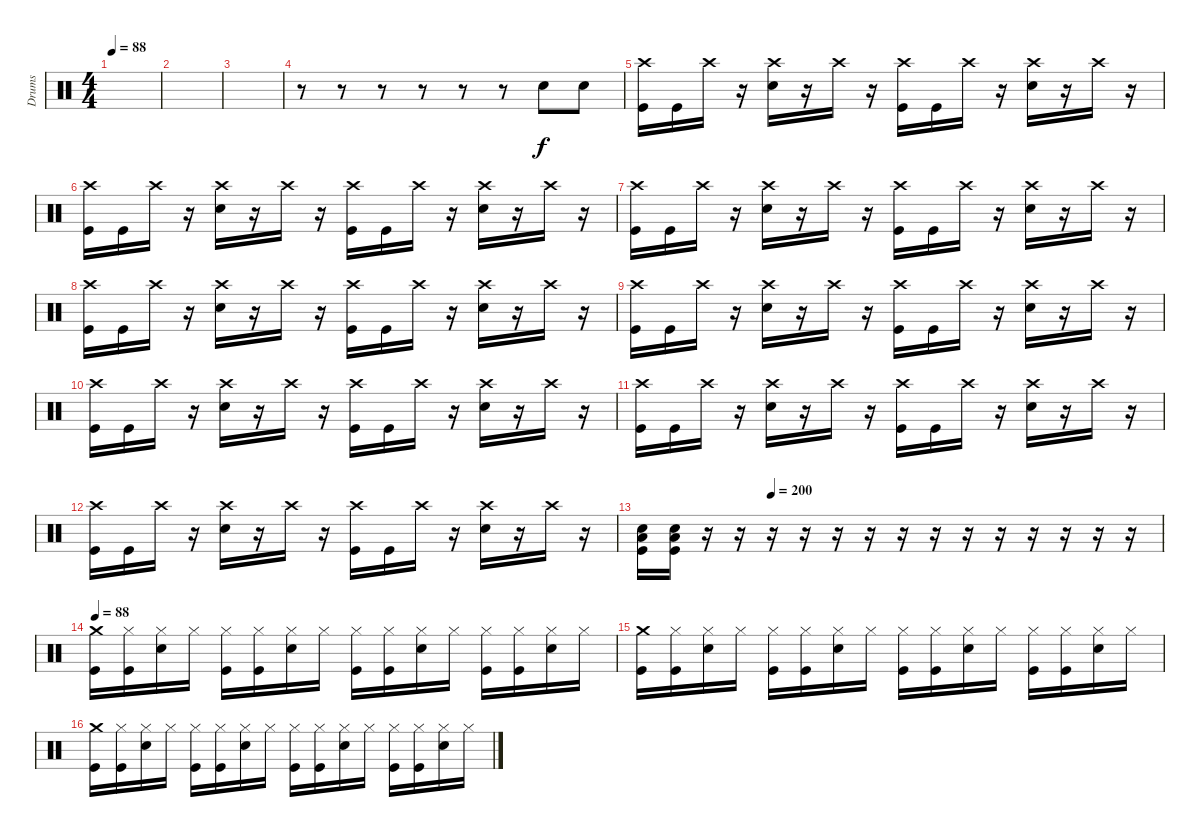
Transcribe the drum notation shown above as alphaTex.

\track ("Drums" "Drums") {instrument percussion}
\staff {score}
\articulation defaults
\ts (4 4)
\tempo 88
\clef neutral
\ks c
|
|
|
r.8 r.8 r.8 r.8 r.8 r.8 "Electric Snare (hit)".8 "Electric Snare (hit)".8 |
("Crash high (hit)" "Kick (hit)").16 "Kick (hit)".16 "Crash high (hit)".16 r.16 ("Crash high (hit)" "Electric Snare (hit)").16 r.16 "Crash high (hit)".16 r.16 ("Crash high (hit)" "Kick (hit)").16 "Kick (hit)".16 "Crash high (hit)".16 r.16 ("Crash high (hit)" "Electric Snare (hit)").16 r.16 "Crash high (hit)".16 r.16 |
("Crash high (hit)" "Kick (hit)").16 "Kick (hit)".16 "Crash high (hit)".16 r.16 ("Crash high (hit)" "Electric Snare (hit)").16 r.16 "Crash high (hit)".16 r.16 ("Crash high (hit)" "Kick (hit)").16 "Kick (hit)".16 "Crash high (hit)".16 r.16 ("Crash high (hit)" "Electric Snare (hit)").16 r.16 "Crash high (hit)".16 r.16 |
("Crash high (hit)" "Kick (hit)").16 "Kick (hit)".16 "Crash high (hit)".16 r.16 ("Crash high (hit)" "Electric Snare (hit)").16 r.16 "Crash high (hit)".16 r.16 ("Crash high (hit)" "Kick (hit)").16 "Kick (hit)".16 "Crash high (hit)".16 r.16 ("Crash high (hit)" "Electric Snare (hit)").16 r.16 "Crash high (hit)".16 r.16 |
("Crash high (hit)" "Kick (hit)").16 "Kick (hit)".16 "Crash high (hit)".16 r.16 ("Crash high (hit)" "Electric Snare (hit)").16 r.16 "Crash high (hit)".16 r.16 ("Crash high (hit)" "Kick (hit)").16 "Kick (hit)".16 "Crash high (hit)".16 r.16 ("Crash high (hit)" "Electric Snare (hit)").16 r.16 "Crash high (hit)".16 r.16 |
("Crash high (hit)" "Kick (hit)").16 "Kick (hit)".16 "Crash high (hit)".16 r.16 ("Crash high (hit)" "Electric Snare (hit)").16 r.16 "Crash high (hit)".16 r.16 ("Crash high (hit)" "Kick (hit)").16 "Kick (hit)".16 "Crash high (hit)".16 r.16 ("Crash high (hit)" "Electric Snare (hit)").16 r.16 "Crash high (hit)".16 r.16 |
("Crash high (hit)" "Kick (hit)").16 "Kick (hit)".16 "Crash high (hit)".16 r.16 ("Crash high (hit)" "Electric Snare (hit)").16 r.16 "Crash high (hit)".16 r.16 ("Crash high (hit)" "Kick (hit)").16 "Kick (hit)".16 "Crash high (hit)".16 r.16 ("Crash high (hit)" "Electric Snare (hit)").16 r.16 "Crash high (hit)".16 r.16 |
("Crash high (hit)" "Kick (hit)").16 "Kick (hit)".16 "Crash high (hit)".16 r.16 ("Crash high (hit)" "Electric Snare (hit)").16 r.16 "Crash high (hit)".16 r.16 ("Crash high (hit)" "Kick (hit)").16 "Kick (hit)".16 "Crash high (hit)".16 r.16 ("Crash high (hit)" "Electric Snare (hit)").16 r.16 "Crash high (hit)".16 r.16 |
("Crash high (hit)" "Kick (hit)").16 "Kick (hit)".16 "Crash high (hit)".16 r.16 ("Crash high (hit)" "Electric Snare (hit)").16 r.16 "Crash high (hit)".16 r.16 ("Crash high (hit)" "Kick (hit)").16 "Kick (hit)".16 "Crash high (hit)".16 r.16 ("Crash high (hit)" "Electric Snare (hit)").16 r.16 "Crash high (hit)".16 r.16 |
\tempo (200 0.25)
("Low Tom (hit)" "Electric Snare (hit)" "Kick (hit)").16 ("Low Tom (hit)" "Electric Snare (hit)" "Kick (hit)").16 r.16 r.16 r.16 r.16 r.16 r.16 r.16 r.16 r.16 r.16 r.16 r.16 r.16 r.16 |
\tempo 88
("Crash medium (hit)" "Kick (hit)").16 ("Hi-Hat (closed)" "Kick (hit)").16 ("Hi-Hat (closed)" "Electric Snare (hit)").16 "Hi-Hat (closed)".16 ("Hi-Hat (closed)" "Kick (hit)").16 ("Hi-Hat (closed)" "Kick (hit)").16 ("Hi-Hat (closed)" "Electric Snare (hit)").16 "Hi-Hat (closed)".16 ("Hi-Hat (closed)" "Kick (hit)").16 ("Hi-Hat (closed)" "Kick (hit)").16 ("Hi-Hat (closed)" "Electric Snare (hit)").16 "Hi-Hat (closed)".16 ("Hi-Hat (closed)" "Kick (hit)").16 ("Hi-Hat (closed)" "Kick (hit)").16 ("Hi-Hat (closed)" "Electric Snare (hit)").16 "Hi-Hat (closed)".16 |
("Crash medium (hit)" "Kick (hit)").16 ("Hi-Hat (closed)" "Kick (hit)").16 ("Hi-Hat (closed)" "Electric Snare (hit)").16 "Hi-Hat (closed)".16 ("Hi-Hat (closed)" "Kick (hit)").16 ("Hi-Hat (closed)" "Kick (hit)").16 ("Hi-Hat (closed)" "Electric Snare (hit)").16 "Hi-Hat (closed)".16 ("Hi-Hat (closed)" "Kick (hit)").16 ("Hi-Hat (closed)" "Kick (hit)").16 ("Hi-Hat (closed)" "Electric Snare (hit)").16 "Hi-Hat (closed)".16 ("Hi-Hat (closed)" "Kick (hit)").16 ("Hi-Hat (closed)" "Kick (hit)").16 ("Hi-Hat (closed)" "Electric Snare (hit)").16 "Hi-Hat (closed)".16 |
("Crash medium (hit)" "Kick (hit)").16 ("Hi-Hat (closed)" "Kick (hit)").16 ("Hi-Hat (closed)" "Electric Snare (hit)").16 "Hi-Hat (closed)".16 ("Hi-Hat (closed)" "Kick (hit)").16 ("Hi-Hat (closed)" "Kick (hit)").16 ("Hi-Hat (closed)" "Electric Snare (hit)").16 "Hi-Hat (closed)".16 ("Hi-Hat (closed)" "Kick (hit)").16 ("Hi-Hat (closed)" "Kick (hit)").16 ("Hi-Hat (closed)" "Electric Snare (hit)").16 "Hi-Hat (closed)".16 ("Hi-Hat (closed)" "Kick (hit)").16 ("Hi-Hat (closed)" "Kick (hit)").16 ("Hi-Hat (closed)" "Electric Snare (hit)").16 "Hi-Hat (closed)".16
